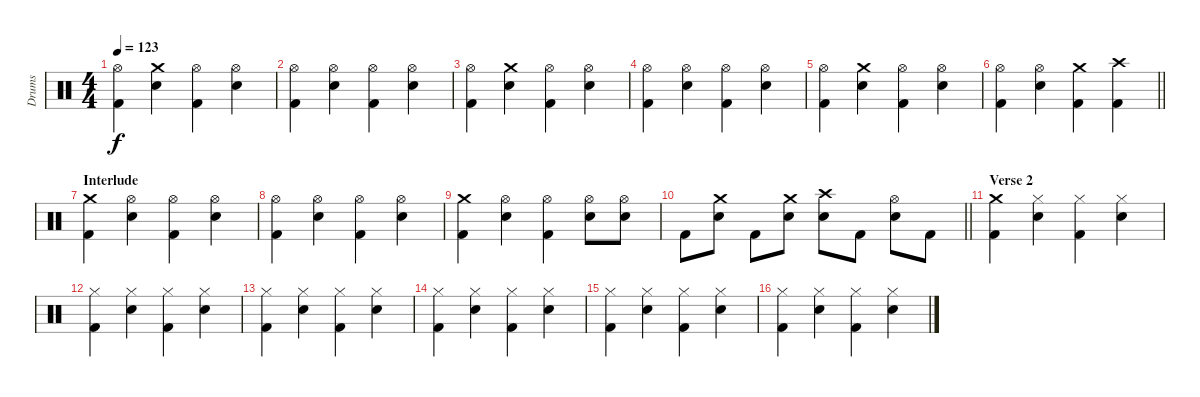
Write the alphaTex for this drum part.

\track ("Drums" "Drums") {instrument percussion}
\staff {score}
\articulation defaults
\ts (4 4)
\tempo 123
\clef neutral
\ks c
("Hi-Hat (open)" "Kick (hit) 2").4{dy f} ("Crash medium (hit)" "Electric Snare (hit)").4 ("Hi-Hat (open)" "Kick (hit) 2").4 ("Hi-Hat (open)" "Electric Snare (hit)").4 |
("Hi-Hat (open)" "Kick (hit) 2").4 ("Hi-Hat (open)" "Electric Snare (hit)").4 ("Hi-Hat (open)" "Kick (hit) 2").4 ("Hi-Hat (open)" "Electric Snare (hit)").4 |
("Hi-Hat (open)" "Kick (hit) 2").4 ("Crash medium (hit)" "Electric Snare (hit)").4 ("Hi-Hat (open)" "Kick (hit) 2").4 ("Hi-Hat (open)" "Electric Snare (hit)").4 |
("Hi-Hat (open)" "Kick (hit) 2").4 ("Hi-Hat (open)" "Electric Snare (hit)").4 ("Hi-Hat (open)" "Kick (hit) 2").4 ("Hi-Hat (open)" "Electric Snare (hit)").4 |
("Hi-Hat (open)" "Kick (hit) 2").4 ("Crash medium (hit)" "Electric Snare (hit)").4 ("Hi-Hat (open)" "Kick (hit) 2").4 ("Hi-Hat (open)" "Electric Snare (hit)").4 |
\barLineRight lightlight
("Hi-Hat (open)" "Kick (hit) 2").4 ("Hi-Hat (open)" "Electric Snare (hit)").4 ("Crash medium (hit)" "Kick (hit) 2").4 ("Crash high (hit)" "Kick (hit) 2").4 |
\section ("" "Interlude")
("Crash medium (hit)" "Kick (hit) 2").4 ("Hi-Hat (open)" "Electric Snare (hit)").4 ("Hi-Hat (open)" "Kick (hit) 2").4 ("Hi-Hat (open)" "Electric Snare (hit)").4 |
("Hi-Hat (open)" "Kick (hit) 2").4 ("Hi-Hat (open)" "Electric Snare (hit)").4 ("Hi-Hat (open)" "Kick (hit) 2").4 ("Hi-Hat (open)" "Electric Snare (hit)").4 |
("Crash medium (hit)" "Kick (hit) 2").4 ("Hi-Hat (open)" "Electric Snare (hit)").4 ("Hi-Hat (open)" "Kick (hit) 2").4 ("Hi-Hat (open)" "Electric Snare (hit)").8 ("Hi-Hat (open)" "Electric Snare (hit)").8 |
\barLineRight lightlight "Kick (hit) 2".8
("Crash medium (hit)" "Electric Snare (hit)").8 "Kick (hit) 2".8 ("Crash medium (hit)" "Electric Snare (hit)").8 ("Crash high (hit)" "Electric Snare (hit)").8 "Kick (hit) 2".8 ("Hi-Hat (open)" "Electric Snare (hit)").8 "Kick (hit) 2".8 |
\section ("" "Verse 2")
("Crash medium (hit)" "Kick (hit) 2").4 ("Hi-Hat (closed)" "Electric Snare (hit)").4 ("Hi-Hat (closed)" "Kick (hit) 2").4 ("Hi-Hat (closed)" "Electric Snare (hit)").4 |
("Hi-Hat (closed)" "Kick (hit) 2").4 ("Hi-Hat (closed)" "Electric Snare (hit)").4 ("Hi-Hat (closed)" "Kick (hit) 2").4 ("Hi-Hat (closed)" "Electric Snare (hit)").4 |
("Hi-Hat (closed)" "Kick (hit) 2").4 ("Hi-Hat (closed)" "Electric Snare (hit)").4 ("Hi-Hat (closed)" "Kick (hit) 2").4 ("Hi-Hat (closed)" "Electric Snare (hit)").4 |
("Hi-Hat (closed)" "Kick (hit) 2").4 ("Hi-Hat (closed)" "Electric Snare (hit)").4 ("Hi-Hat (closed)" "Kick (hit) 2").4 ("Hi-Hat (closed)" "Electric Snare (hit)").4 |
("Hi-Hat (closed)" "Kick (hit) 2").4 ("Hi-Hat (closed)" "Electric Snare (hit)").4 ("Hi-Hat (closed)" "Kick (hit) 2").4 ("Hi-Hat (closed)" "Electric Snare (hit)").4 |
("Hi-Hat (closed)" "Kick (hit) 2").4 ("Hi-Hat (closed)" "Electric Snare (hit)").4 ("Hi-Hat (closed)" "Kick (hit) 2").4 ("Hi-Hat (closed)" "Electric Snare (hit)").4
